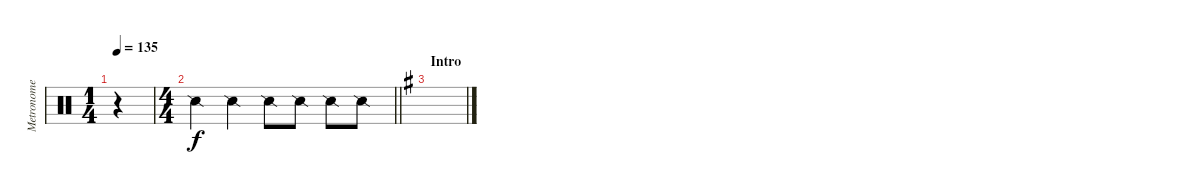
\track ("Metronome" "Metronome") {instrument percussion}
\staff {score}
\articulation defaults
\ts (1 4)
\tempo 135
\clef neutral
\ks c
r.4{dy f} |
\ts (4 4)
\barLineRight lightlight "Snare (side stick) 2".4 "Snare (side stick) 2".4 "Snare (side stick) 2".8 "Snare (side stick) 2".8 "Snare (side stick) 2".8 "Snare (side stick) 2".8
|
\section ("" "Intro")
\ks g
